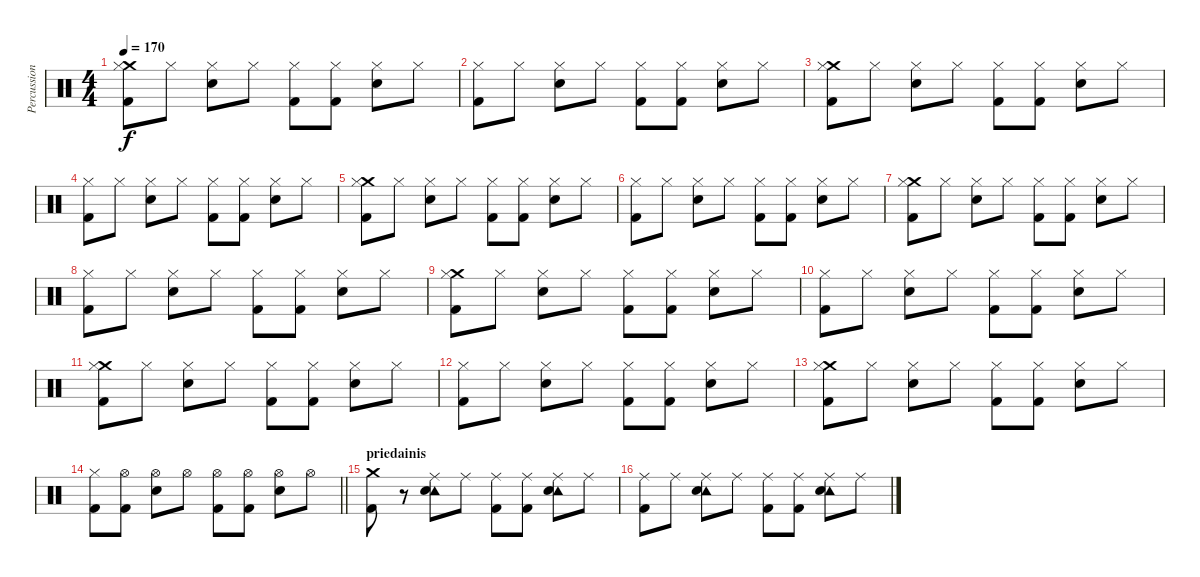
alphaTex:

\track ("Percussion" "Percussion") {instrument percussion}
\staff {score}
\articulation defaults
\ts (4 4)
\tempo 170
\clef neutral
\ks c
("Crash medium (hit)" "Hi-Hat (closed)" "Kick (hit) 2").8{dy f} "Hi-Hat (closed)".8 ("Hi-Hat (closed)" "Snare (hit) 2").8 "Hi-Hat (closed)".8 ("Hi-Hat (closed)" "Kick (hit) 2").8 ("Hi-Hat (closed)" "Kick (hit) 2").8 ("Hi-Hat (closed)" "Snare (hit) 2").8 "Hi-Hat (closed)".8 |
("Hi-Hat (closed)" "Kick (hit) 2").8 "Hi-Hat (closed)".8 ("Hi-Hat (closed)" "Snare (hit) 2").8 "Hi-Hat (closed)".8 ("Hi-Hat (closed)" "Kick (hit) 2").8 ("Hi-Hat (closed)" "Kick (hit) 2").8 ("Hi-Hat (closed)" "Snare (hit) 2").8 "Hi-Hat (closed)".8 |
("Crash medium (hit)" "Hi-Hat (closed)" "Kick (hit) 2").8 "Hi-Hat (closed)".8 ("Hi-Hat (closed)" "Snare (hit) 2").8 "Hi-Hat (closed)".8 ("Hi-Hat (closed)" "Kick (hit) 2").8 ("Hi-Hat (closed)" "Kick (hit) 2").8 ("Hi-Hat (closed)" "Snare (hit) 2").8 "Hi-Hat (closed)".8 |
("Hi-Hat (closed)" "Kick (hit) 2").8 "Hi-Hat (closed)".8 ("Hi-Hat (closed)" "Snare (hit) 2").8 "Hi-Hat (closed)".8 ("Hi-Hat (closed)" "Kick (hit) 2").8 ("Hi-Hat (closed)" "Kick (hit) 2").8 ("Hi-Hat (closed)" "Snare (hit) 2").8 "Hi-Hat (closed)".8 |
("Crash medium (hit)" "Hi-Hat (closed)" "Kick (hit) 2").8 "Hi-Hat (closed)".8 ("Hi-Hat (closed)" "Snare (hit) 2").8 "Hi-Hat (closed)".8 ("Hi-Hat (closed)" "Kick (hit) 2").8 ("Hi-Hat (closed)" "Kick (hit) 2").8 ("Hi-Hat (closed)" "Snare (hit) 2").8 "Hi-Hat (closed)".8 |
("Hi-Hat (closed)" "Kick (hit) 2").8 "Hi-Hat (closed)".8 ("Hi-Hat (closed)" "Snare (hit) 2").8 "Hi-Hat (closed)".8 ("Hi-Hat (closed)" "Kick (hit) 2").8 ("Hi-Hat (closed)" "Kick (hit) 2").8 ("Hi-Hat (closed)" "Snare (hit) 2").8 "Hi-Hat (closed)".8 |
("Crash medium (hit)" "Hi-Hat (closed)" "Kick (hit) 2").8 "Hi-Hat (closed)".8 ("Hi-Hat (closed)" "Snare (hit) 2").8 "Hi-Hat (closed)".8 ("Hi-Hat (closed)" "Kick (hit) 2").8 ("Hi-Hat (closed)" "Kick (hit) 2").8 ("Hi-Hat (closed)" "Snare (hit) 2").8 "Hi-Hat (closed)".8 |
("Hi-Hat (closed)" "Kick (hit) 2").8 "Hi-Hat (closed)".8 ("Hi-Hat (closed)" "Snare (hit) 2").8 "Hi-Hat (closed)".8 ("Hi-Hat (closed)" "Kick (hit) 2").8 ("Hi-Hat (closed)" "Kick (hit) 2").8 ("Hi-Hat (closed)" "Snare (hit) 2").8 "Hi-Hat (closed)".8 |
("Crash medium (hit)" "Hi-Hat (closed)" "Kick (hit) 2").8 "Hi-Hat (closed)".8 ("Hi-Hat (closed)" "Snare (hit) 2").8 "Hi-Hat (closed)".8 ("Hi-Hat (closed)" "Kick (hit) 2").8 ("Hi-Hat (closed)" "Kick (hit) 2").8 ("Hi-Hat (closed)" "Snare (hit) 2").8 "Hi-Hat (closed)".8 |
("Hi-Hat (closed)" "Kick (hit) 2").8 "Hi-Hat (closed)".8 ("Hi-Hat (closed)" "Snare (hit) 2").8 "Hi-Hat (closed)".8 ("Hi-Hat (closed)" "Kick (hit) 2").8 ("Hi-Hat (closed)" "Kick (hit) 2").8 ("Hi-Hat (closed)" "Snare (hit) 2").8 "Hi-Hat (closed)".8 |
("Crash medium (hit)" "Hi-Hat (closed)" "Kick (hit) 2").8 "Hi-Hat (closed)".8 ("Hi-Hat (closed)" "Snare (hit) 2").8 "Hi-Hat (closed)".8 ("Hi-Hat (closed)" "Kick (hit) 2").8 ("Hi-Hat (closed)" "Kick (hit) 2").8 ("Hi-Hat (closed)" "Snare (hit) 2").8 "Hi-Hat (closed)".8 |
("Hi-Hat (closed)" "Kick (hit) 2").8 "Hi-Hat (closed)".8 ("Hi-Hat (closed)" "Snare (hit) 2").8 "Hi-Hat (closed)".8 ("Hi-Hat (closed)" "Kick (hit) 2").8 ("Hi-Hat (closed)" "Kick (hit) 2").8 ("Hi-Hat (closed)" "Snare (hit) 2").8 "Hi-Hat (closed)".8 |
("Crash medium (hit)" "Hi-Hat (closed)" "Kick (hit) 2").8 "Hi-Hat (closed)".8 ("Hi-Hat (closed)" "Snare (hit) 2").8 "Hi-Hat (closed)".8 ("Hi-Hat (closed)" "Kick (hit) 2").8 ("Hi-Hat (closed)" "Kick (hit) 2").8 ("Hi-Hat (closed)" "Snare (hit) 2").8 "Hi-Hat (closed)".8 |
\barLineRight lightlight
("Hi-Hat (closed)" "Kick (hit) 2").8 ("Hi-Hat (open)" "Kick (hit) 2").8 ("Hi-Hat (open)" "Snare (hit) 2").8 "Hi-Hat (open)".8 ("Hi-Hat (open)" "Kick (hit) 2").8 ("Hi-Hat (open)" "Kick (hit) 2").8 ("Hi-Hat (open)" "Snare (hit) 2").8 "Hi-Hat (open)".8 |
\section ("" "priedainis")
("Crash medium (hit)" "Kick (hit) 2").8 r.8 ("Ride (middle)" "Tambourine (hit)" "Snare (hit) 2").8 "Ride (middle)".8 ("Ride (middle)" "Kick (hit) 2").8 ("Ride (middle)" "Kick (hit) 2").8 ("Ride (middle)" "Tambourine (hit)" "Snare (hit) 2").8 "Ride (middle)".8 |
("Ride (middle)" "Kick (hit) 2").8 "Ride (middle)".8 ("Ride (middle)" "Tambourine (hit)" "Snare (hit) 2").8 "Ride (middle)".8 ("Ride (middle)" "Kick (hit) 2").8 ("Ride (middle)" "Kick (hit) 2").8 ("Ride (middle)" "Tambourine (hit)" "Snare (hit) 2").8 "Ride (middle)".8
